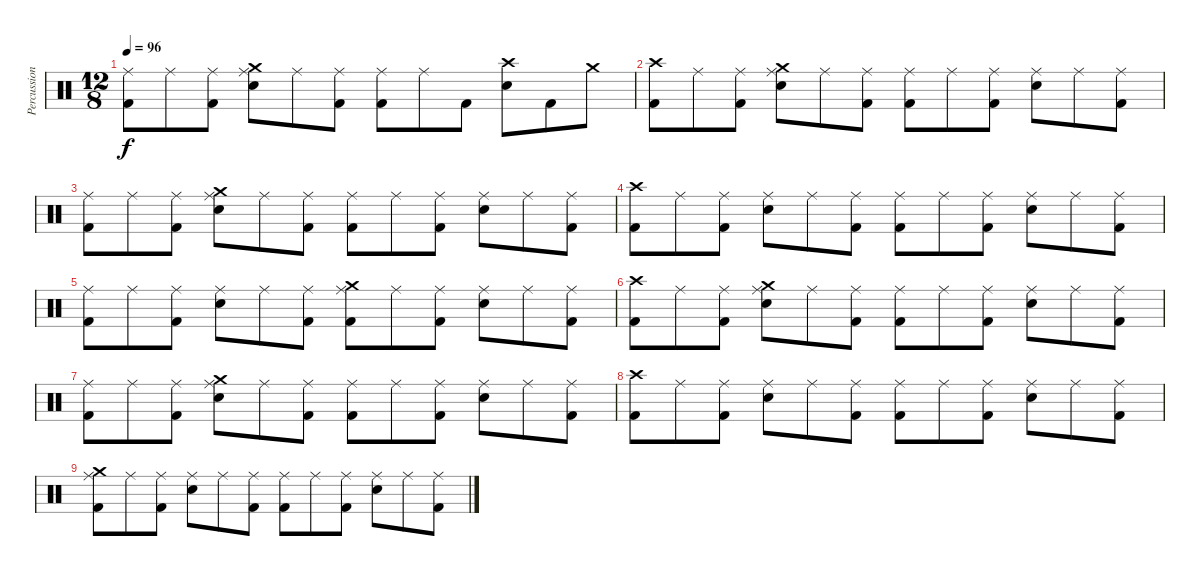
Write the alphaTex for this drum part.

\track ("Percussion" "Percussion") {instrument percussion}
\staff {score}
\articulation defaults
\ts (12 8)
\tempo 96
\clef neutral
\ks c
("Ride (middle)" "Kick (hit) 2").8{dy f} "Ride (middle)".8 ("Ride (middle)" "Kick (hit) 2").8 ("Crash medium (hit)" "Ride (middle)" "Electric Snare (hit)").8 "Ride (middle)".8 ("Ride (middle)" "Kick (hit) 2").8 ("Ride (middle)" "Kick (hit) 2").8 "Ride (middle)".8 "Kick (hit) 2".8 ("Crash high (hit)" "Electric Snare (hit)").8 "Kick (hit) 2".8 "Crash medium (hit)".8 |
("Crash high (hit)" "Kick (hit) 2").8 "Ride (middle)".8 ("Ride (middle)" "Kick (hit) 2").8 ("Crash medium (hit)" "Ride (middle)" "Electric Snare (hit)").8 "Ride (middle)".8 ("Ride (middle)" "Kick (hit) 2").8 ("Ride (middle)" "Kick (hit) 2").8 "Ride (middle)".8 ("Ride (middle)" "Kick (hit) 2").8 ("Ride (middle)" "Electric Snare (hit)").8 "Ride (middle)".8 ("Ride (middle)" "Kick (hit) 2").8 |
("Ride (middle)" "Kick (hit) 2").8 "Ride (middle)".8 ("Ride (middle)" "Kick (hit) 2").8 ("Crash medium (hit)" "Ride (middle)" "Electric Snare (hit)").8 "Ride (middle)".8 ("Ride (middle)" "Kick (hit) 2").8 ("Ride (middle)" "Kick (hit) 2").8 "Ride (middle)".8 ("Ride (middle)" "Kick (hit) 2").8 ("Ride (middle)" "Electric Snare (hit)").8 "Ride (middle)".8 ("Ride (middle)" "Kick (hit) 2").8 |
("Crash high (hit)" "Kick (hit) 2").8 "Ride (middle)".8 ("Ride (middle)" "Kick (hit) 2").8 ("Ride (middle)" "Electric Snare (hit)").8 "Ride (middle)".8 ("Ride (middle)" "Kick (hit) 2").8 ("Ride (middle)" "Kick (hit) 2").8 "Ride (middle)".8 ("Ride (middle)" "Kick (hit) 2").8 ("Ride (middle)" "Electric Snare (hit)").8 "Ride (middle)".8 ("Ride (middle)" "Kick (hit) 2").8 |
("Ride (middle)" "Kick (hit) 2").8 "Ride (middle)".8 ("Ride (middle)" "Kick (hit) 2").8 ("Ride (middle)" "Electric Snare (hit)").8 "Ride (middle)".8 ("Ride (middle)" "Kick (hit) 2").8 ("Crash medium (hit)" "Ride (middle)" "Kick (hit) 2").8 "Ride (middle)".8 ("Ride (middle)" "Kick (hit) 2").8 ("Ride (middle)" "Electric Snare (hit)").8 "Ride (middle)".8 ("Ride (middle)" "Kick (hit) 2").8 |
("Crash high (hit)" "Kick (hit) 2").8{volume 13} "Ride (middle)".8 ("Ride (middle)" "Kick (hit) 2").8 ("Crash medium (hit)" "Ride (middle)" "Electric Snare (hit)").8 "Ride (middle)".8 ("Ride (middle)" "Kick (hit) 2").8 ("Ride (middle)" "Kick (hit) 2").8 "Ride (middle)".8 ("Ride (middle)" "Kick (hit) 2").8 ("Ride (middle)" "Electric Snare (hit)").8 "Ride (middle)".8 ("Ride (middle)" "Kick (hit) 2").8 |
("Ride (middle)" "Kick (hit) 2").8{volume 10} "Ride (middle)".8 ("Ride (middle)" "Kick (hit) 2").8 ("Crash medium (hit)" "Ride (middle)" "Electric Snare (hit)").8 "Ride (middle)".8 ("Ride (middle)" "Kick (hit) 2").8 ("Ride (middle)" "Kick (hit) 2").8 "Ride (middle)".8 ("Ride (middle)" "Kick (hit) 2").8 ("Ride (middle)" "Electric Snare (hit)").8 "Ride (middle)".8 ("Ride (middle)" "Kick (hit) 2").8 |
("Crash high (hit)" "Kick (hit) 2").8{volume 5} "Ride (middle)".8 ("Ride (middle)" "Kick (hit) 2").8 ("Ride (middle)" "Electric Snare (hit)").8 "Ride (middle)".8 ("Ride (middle)" "Kick (hit) 2").8 ("Ride (middle)" "Kick (hit) 2").8 "Ride (middle)".8 ("Ride (middle)" "Kick (hit) 2").8 ("Ride (middle)" "Electric Snare (hit)").8 "Ride (middle)".8 ("Ride (middle)" "Kick (hit) 2").8 |
("Crash medium (hit)" "Ride (middle)" "Kick (hit) 2").8{volume 0} "Ride (middle)".8 ("Ride (middle)" "Kick (hit) 2").8 ("Ride (middle)" "Electric Snare (hit)").8 "Ride (middle)".8 ("Ride (middle)" "Kick (hit) 2").8 ("Ride (middle)" "Kick (hit) 2").8 "Ride (middle)".8 ("Ride (middle)" "Kick (hit) 2").8 ("Ride (middle)" "Electric Snare (hit)").8 "Ride (middle)".8 ("Ride (middle)" "Kick (hit) 2").8
